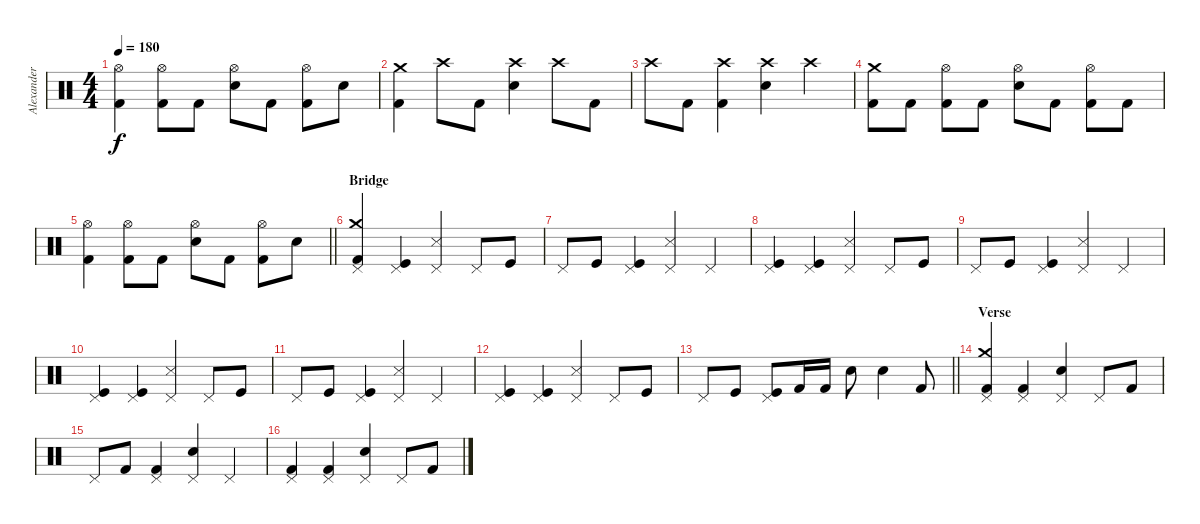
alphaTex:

\track ("Alexander Sveningsson" "Alexander ") {instrument percussion}
\staff {score}
\articulation defaults
\ts (4 4)
\tempo 180
\clef neutral
\ks c
("Hi-Hat (open)" "Kick (hit) 2").4{dy f} ("Hi-Hat (open)" "Kick (hit) 2").8 "Kick (hit) 2".8 ("Hi-Hat (open)" "Electric Snare (hit)").8 "Kick (hit) 2".8 ("Hi-Hat (open)" "Kick (hit) 2").8 "Electric Snare (hit)".8 |
("Crash medium (hit)" "Kick (hit) 2").4 "Crash high (hit)".8 "Kick (hit) 2".8 ("Crash high (hit)" "Electric Snare (hit)").4 "Crash high (hit)".8 "Kick (hit) 2".8 |
"Crash high (hit)".8 "Kick (hit) 2".8 ("Crash high (hit)" "Kick (hit) 2").4 ("Crash high (hit)" "Electric Snare (hit)").4 "Crash high (hit)".4 |
("Crash medium (hit)" "Kick (hit) 2").8 "Kick (hit) 2".8 ("Hi-Hat (open)" "Kick (hit) 2").8 "Kick (hit) 2".8 ("Hi-Hat (open)" "Electric Snare (hit)").8 "Kick (hit) 2".8 ("Hi-Hat (open)" "Kick (hit) 2").8 "Kick (hit) 2".8 |
\barLineRight lightlight
("Hi-Hat (open)" "Kick (hit) 2").4 ("Hi-Hat (open)" "Kick (hit) 2").8 "Kick (hit) 2".8 ("Hi-Hat (open)" "Electric Snare (hit)").8 "Kick (hit) 2".8 ("Hi-Hat (open)" "Kick (hit) 2").8 "Electric Snare (hit)".8 |
\section ("" "Bridge")
("Crash medium (hit)" "Pedal Hi-Hat (hit)" "Kick (hit) 2").4 ("Pedal Hi-Hat (hit)" "Kick (hit)").4 ("Pedal Hi-Hat (hit)" "Snare (side stick) 3").4 "Pedal Hi-Hat (hit)".8 "Kick (hit)".8 |
"Pedal Hi-Hat (hit)".8 "Kick (hit)".8 ("Pedal Hi-Hat (hit)" "Kick (hit)").4 ("Pedal Hi-Hat (hit)" "Snare (side stick) 3").4 "Pedal Hi-Hat (hit)".4 |
("Pedal Hi-Hat (hit)" "Kick (hit)").4 ("Pedal Hi-Hat (hit)" "Kick (hit)").4 ("Pedal Hi-Hat (hit)" "Snare (side stick) 3").4 "Pedal Hi-Hat (hit)".8 "Kick (hit)".8 |
"Pedal Hi-Hat (hit)".8 "Kick (hit)".8 ("Pedal Hi-Hat (hit)" "Kick (hit)").4 ("Pedal Hi-Hat (hit)" "Snare (side stick) 3").4 "Pedal Hi-Hat (hit)".4 |
("Pedal Hi-Hat (hit)" "Kick (hit)").4 ("Pedal Hi-Hat (hit)" "Kick (hit)").4 ("Pedal Hi-Hat (hit)" "Snare (side stick) 3").4 "Pedal Hi-Hat (hit)".8 "Kick (hit)".8 |
"Pedal Hi-Hat (hit)".8 "Kick (hit)".8 ("Pedal Hi-Hat (hit)" "Kick (hit)").4 ("Pedal Hi-Hat (hit)" "Snare (side stick) 3").4 "Pedal Hi-Hat (hit)".4 |
("Pedal Hi-Hat (hit)" "Kick (hit)").4 ("Pedal Hi-Hat (hit)" "Kick (hit)").4 ("Pedal Hi-Hat (hit)" "Snare (side stick) 3").4 "Pedal Hi-Hat (hit)".8 "Kick (hit)".8 |
\barLineRight lightlight "Pedal Hi-Hat (hit)".8 "Kick (hit)".8
("Pedal Hi-Hat (hit)" "Kick (hit)").8 "Kick (hit) 2".16 "Kick (hit) 2".16 "Electric Snare (hit)".8 "Electric Snare (hit)".4 "Kick (hit) 2".8 |
\section ("" "Verse")
("Crash medium (hit)" "Pedal Hi-Hat (hit)" "Kick (hit) 2").4 ("Pedal Hi-Hat (hit)" "Kick (hit) 2").4 ("Pedal Hi-Hat (hit)" "Electric Snare (hit)").4 "Pedal Hi-Hat (hit)".8 "Kick (hit) 2".8 |
"Pedal Hi-Hat (hit)".8 "Kick (hit) 2".8 ("Pedal Hi-Hat (hit)" "Kick (hit) 2").4 ("Pedal Hi-Hat (hit)" "Electric Snare (hit)").4 "Pedal Hi-Hat (hit)".4 |
("Pedal Hi-Hat (hit)" "Kick (hit) 2").4 ("Pedal Hi-Hat (hit)" "Kick (hit) 2").4 ("Pedal Hi-Hat (hit)" "Electric Snare (hit)").4 "Pedal Hi-Hat (hit)".8 "Kick (hit) 2".8
